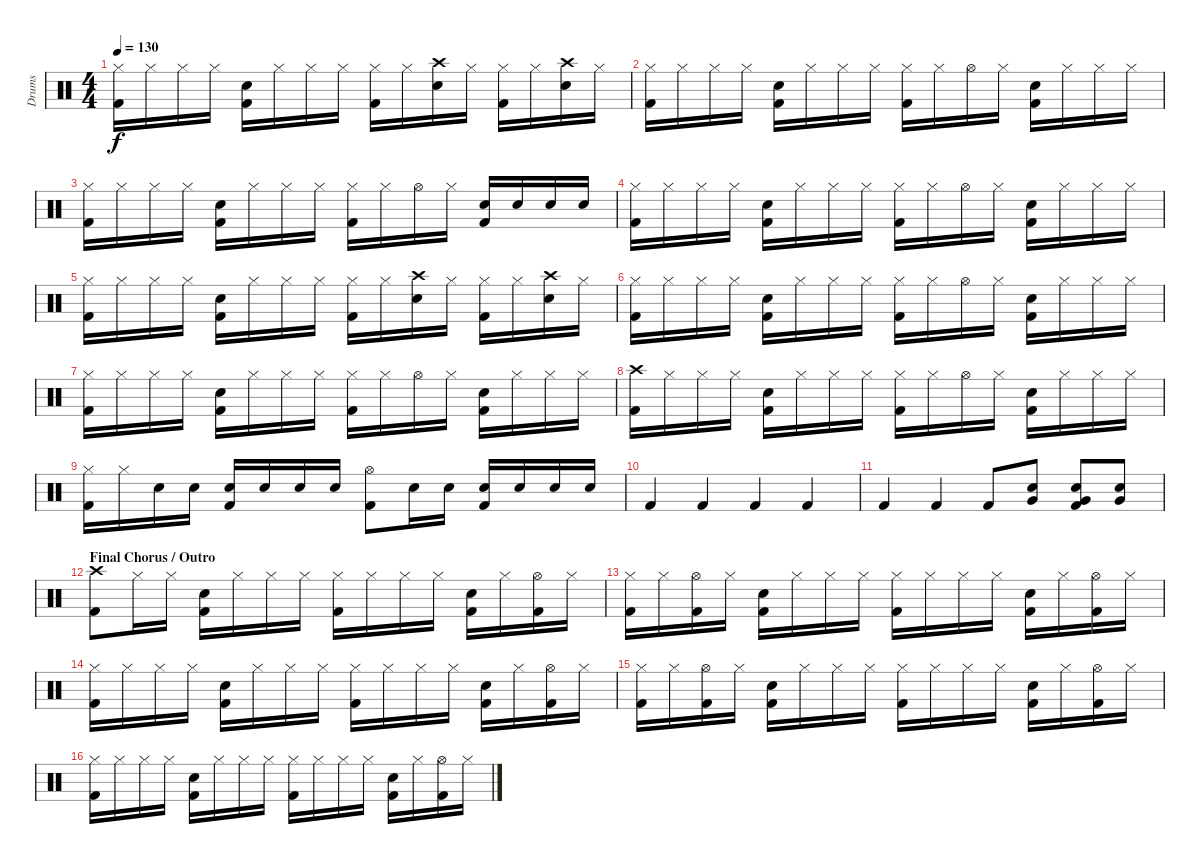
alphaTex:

\track ("Drums" "Drums") {instrument percussion}
\staff {score}
\articulation defaults
\ts (4 4)
\tempo 130
\clef neutral
\ks c
("Hi-Hat (closed)" "Kick (hit) 2").16{dy f} "Hi-Hat (closed)".16 "Hi-Hat (closed)".16 "Hi-Hat (closed)".16 ("Electric Snare (hit)" "Kick (hit) 2").16 "Hi-Hat (closed)".16 "Hi-Hat (closed)".16 "Hi-Hat (closed)".16 ("Hi-Hat (closed)" "Kick (hit) 2").16 "Hi-Hat (closed)".16 ("Crash high (hit)" "Electric Snare (hit)").16 "Hi-Hat (closed)".16 ("Hi-Hat (closed)" "Kick (hit) 2").16 "Hi-Hat (closed)".16 ("Crash high (hit)" "Electric Snare (hit)").16 "Hi-Hat (closed)".16 |
("Hi-Hat (closed)" "Kick (hit) 2").16 "Hi-Hat (closed)".16 "Hi-Hat (closed)".16 "Hi-Hat (closed)".16 ("Electric Snare (hit)" "Kick (hit) 2").16 "Hi-Hat (closed)".16 "Hi-Hat (closed)".16 "Hi-Hat (closed)".16 ("Hi-Hat (closed)" "Kick (hit) 2").16 "Hi-Hat (closed)".16 "Hi-Hat (open)".16 "Hi-Hat (closed)".16 ("Electric Snare (hit)" "Kick (hit) 2").16 "Hi-Hat (closed)".16 "Hi-Hat (closed)".16 "Hi-Hat (closed)".16 |
("Hi-Hat (closed)" "Kick (hit) 2").16 "Hi-Hat (closed)".16 "Hi-Hat (closed)".16 "Hi-Hat (closed)".16 ("Electric Snare (hit)" "Kick (hit) 2").16 "Hi-Hat (closed)".16 "Hi-Hat (closed)".16 "Hi-Hat (closed)".16 ("Hi-Hat (closed)" "Kick (hit) 2").16 "Hi-Hat (closed)".16 "Hi-Hat (open)".16 "Hi-Hat (closed)".16 ("Electric Snare (hit)" "Kick (hit) 2").16 "Electric Snare (hit)".16 "Electric Snare (hit)".16 "Electric Snare (hit)".16 |
("Hi-Hat (closed)" "Kick (hit) 2").16 "Hi-Hat (closed)".16 "Hi-Hat (closed)".16 "Hi-Hat (closed)".16 ("Electric Snare (hit)" "Kick (hit) 2").16 "Hi-Hat (closed)".16 "Hi-Hat (closed)".16 "Hi-Hat (closed)".16 ("Hi-Hat (closed)" "Kick (hit) 2").16 "Hi-Hat (closed)".16 "Hi-Hat (open)".16 "Hi-Hat (closed)".16 ("Electric Snare (hit)" "Kick (hit) 2").16 "Hi-Hat (closed)".16 "Hi-Hat (closed)".16 "Hi-Hat (closed)".16 |
("Hi-Hat (closed)" "Kick (hit) 2").16 "Hi-Hat (closed)".16 "Hi-Hat (closed)".16 "Hi-Hat (closed)".16 ("Electric Snare (hit)" "Kick (hit) 2").16 "Hi-Hat (closed)".16 "Hi-Hat (closed)".16 "Hi-Hat (closed)".16 ("Hi-Hat (closed)" "Kick (hit) 2").16 "Hi-Hat (closed)".16 ("Crash high (hit)" "Electric Snare (hit)").16 "Hi-Hat (closed)".16 ("Hi-Hat (closed)" "Kick (hit) 2").16 "Hi-Hat (closed)".16 ("Crash high (hit)" "Electric Snare (hit)").16 "Hi-Hat (closed)".16 |
("Hi-Hat (closed)" "Kick (hit) 2").16 "Hi-Hat (closed)".16 "Hi-Hat (closed)".16 "Hi-Hat (closed)".16 ("Electric Snare (hit)" "Kick (hit) 2").16 "Hi-Hat (closed)".16 "Hi-Hat (closed)".16 "Hi-Hat (closed)".16 ("Hi-Hat (closed)" "Kick (hit) 2").16 "Hi-Hat (closed)".16 "Hi-Hat (open)".16 "Hi-Hat (closed)".16 ("Electric Snare (hit)" "Kick (hit) 2").16 "Hi-Hat (closed)".16 "Hi-Hat (closed)".16 "Hi-Hat (closed)".16 |
("Hi-Hat (closed)" "Kick (hit) 2").16 "Hi-Hat (closed)".16 "Hi-Hat (closed)".16 "Hi-Hat (closed)".16 ("Electric Snare (hit)" "Kick (hit) 2").16 "Hi-Hat (closed)".16 "Hi-Hat (closed)".16 "Hi-Hat (closed)".16 ("Hi-Hat (closed)" "Kick (hit) 2").16 "Hi-Hat (closed)".16 "Hi-Hat (open)".16 "Hi-Hat (closed)".16 ("Electric Snare (hit)" "Kick (hit) 2").16 "Hi-Hat (closed)".16 "Hi-Hat (closed)".16 "Hi-Hat (closed)".16 |
("Crash high (hit)" "Kick (hit) 2").16 "Hi-Hat (closed)".16 "Hi-Hat (closed)".16 "Hi-Hat (closed)".16 ("Electric Snare (hit)" "Kick (hit) 2").16 "Hi-Hat (closed)".16 "Hi-Hat (closed)".16 "Hi-Hat (closed)".16 ("Hi-Hat (closed)" "Kick (hit) 2").16 "Hi-Hat (closed)".16 "Hi-Hat (open)".16 "Hi-Hat (closed)".16 ("Electric Snare (hit)" "Kick (hit) 2").16 "Hi-Hat (closed)".16 "Hi-Hat (closed)".16 "Hi-Hat (closed)".16 |
("Hi-Hat (closed)" "Kick (hit) 2").16 "Hi-Hat (closed)".16 "Electric Snare (hit)".16 "Electric Snare (hit)".16 ("Electric Snare (hit)" "Kick (hit) 2").16 "Electric Snare (hit)".16 "Electric Snare (hit)".16 "Electric Snare (hit)".16 ("Hi-Hat (open)" "Kick (hit) 2").8 "Electric Snare (hit)".16 "Electric Snare (hit)".16 ("Electric Snare (hit)" "Kick (hit) 2").16 "Electric Snare (hit)".16 "Electric Snare (hit)".16 "Electric Snare (hit)".16 |
"Kick (hit) 2".4 "Kick (hit) 2".4 "Kick (hit) 2".4 "Kick (hit) 2".4 |
"Kick (hit) 2".4 "Kick (hit) 2".4 "Kick (hit) 2".8 ("Very Low Tom (hit)" "Electric Snare (hit)").8 ("Very Low Tom (hit)" "Electric Snare (hit)" "Kick (hit) 2").8 ("Very Low Tom (hit)" "Electric Snare (hit)").8 |
\section ("" "Final Chorus / Outro")
("Crash high (hit)" "Kick (hit) 2").8 "Hi-Hat (closed)".16 "Hi-Hat (closed)".16 ("Electric Snare (hit)" "Kick (hit) 2").16 "Hi-Hat (closed)".16 "Hi-Hat (closed)".16 "Hi-Hat (closed)".16 ("Hi-Hat (closed)" "Kick (hit) 2").16 "Hi-Hat (closed)".16 "Hi-Hat (closed)".16 "Hi-Hat (closed)".16 ("Electric Snare (hit)" "Kick (hit) 2").16 "Hi-Hat (closed)".16 ("Hi-Hat (open)" "Kick (hit) 2").16 "Hi-Hat (closed)".16 |
("Hi-Hat (closed)" "Kick (hit) 2").16 "Hi-Hat (closed)".16 ("Hi-Hat (open)" "Kick (hit) 2").16 "Hi-Hat (closed)".16 ("Electric Snare (hit)" "Kick (hit) 2").16 "Hi-Hat (closed)".16 "Hi-Hat (closed)".16 "Hi-Hat (closed)".16 ("Hi-Hat (closed)" "Kick (hit) 2").16 "Hi-Hat (closed)".16 "Hi-Hat (closed)".16 "Hi-Hat (closed)".16 ("Electric Snare (hit)" "Kick (hit) 2").16 "Hi-Hat (closed)".16 ("Hi-Hat (open)" "Kick (hit) 2").16 "Hi-Hat (closed)".16 |
("Hi-Hat (closed)" "Kick (hit) 2").16 "Hi-Hat (closed)".16 "Hi-Hat (closed)".16 "Hi-Hat (closed)".16 ("Electric Snare (hit)" "Kick (hit) 2").16 "Hi-Hat (closed)".16 "Hi-Hat (closed)".16 "Hi-Hat (closed)".16 ("Hi-Hat (closed)" "Kick (hit) 2").16 "Hi-Hat (closed)".16 "Hi-Hat (closed)".16 "Hi-Hat (closed)".16 ("Electric Snare (hit)" "Kick (hit) 2").16 "Hi-Hat (closed)".16 ("Hi-Hat (open)" "Kick (hit) 2").16 "Hi-Hat (closed)".16 |
("Hi-Hat (closed)" "Kick (hit) 2").16 "Hi-Hat (closed)".16 ("Hi-Hat (open)" "Kick (hit) 2").16 "Hi-Hat (closed)".16 ("Electric Snare (hit)" "Kick (hit) 2").16 "Hi-Hat (closed)".16 "Hi-Hat (closed)".16 "Hi-Hat (closed)".16 ("Hi-Hat (closed)" "Kick (hit) 2").16 "Hi-Hat (closed)".16 "Hi-Hat (closed)".16 "Hi-Hat (closed)".16 ("Electric Snare (hit)" "Kick (hit) 2").16 "Hi-Hat (closed)".16 ("Hi-Hat (open)" "Kick (hit) 2").16 "Hi-Hat (closed)".16 |
("Hi-Hat (closed)" "Kick (hit) 2").16 "Hi-Hat (closed)".16 "Hi-Hat (closed)".16 "Hi-Hat (closed)".16 ("Electric Snare (hit)" "Kick (hit) 2").16 "Hi-Hat (closed)".16 "Hi-Hat (closed)".16 "Hi-Hat (closed)".16 ("Hi-Hat (closed)" "Kick (hit) 2").16 "Hi-Hat (closed)".16 "Hi-Hat (closed)".16 "Hi-Hat (closed)".16 ("Electric Snare (hit)" "Kick (hit) 2").16 "Hi-Hat (closed)".16 ("Hi-Hat (open)" "Kick (hit) 2").16 "Hi-Hat (closed)".16
